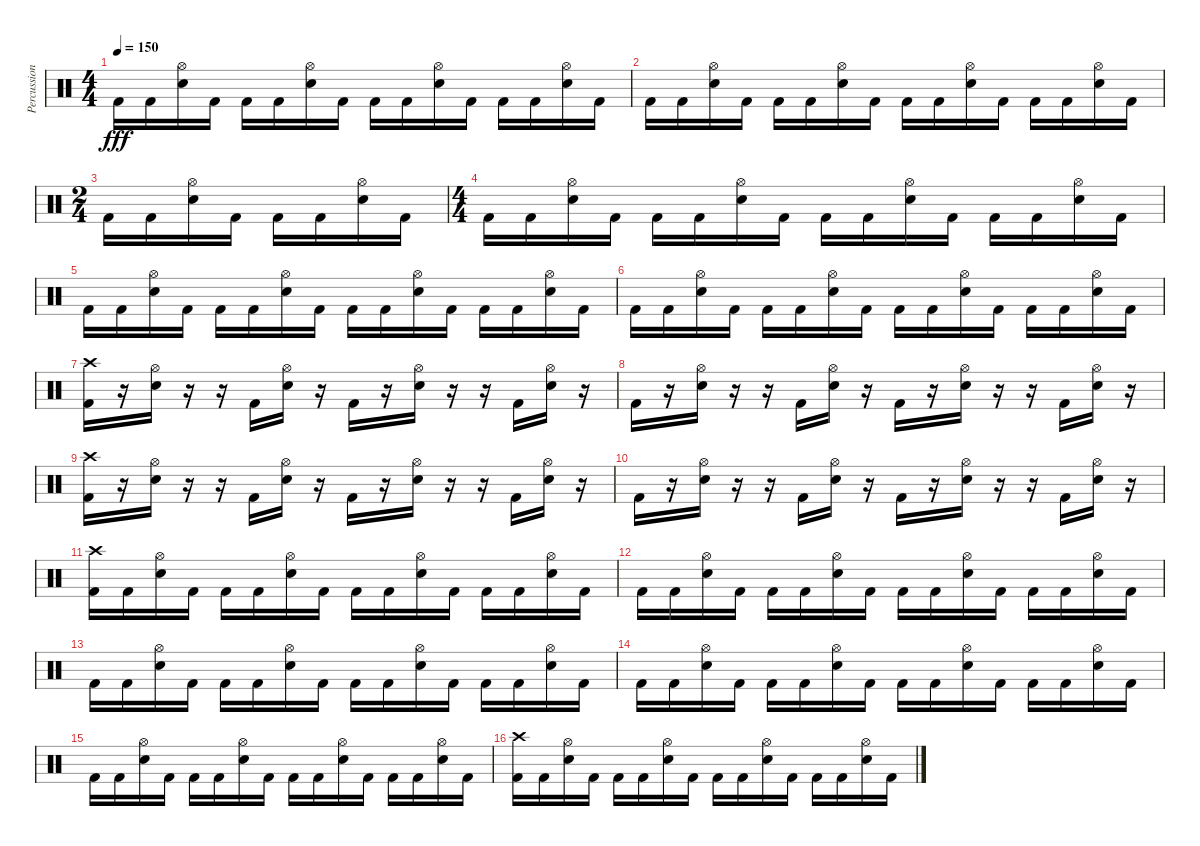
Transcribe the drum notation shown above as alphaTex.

\track ("Percussion" "Percussion") {instrument percussion}
\staff {score}
\articulation defaults
\ts (4 4)
\tempo 150
\clef neutral
\ks c "Kick (hit) 2".16{dy fff} "Kick (hit) 2".16
("Snare (hit) 2" "Hi-Hat (open)").16 "Kick (hit) 2".16 "Kick (hit) 2".16 "Kick (hit) 2".16 ("Snare (hit) 2" "Hi-Hat (open)").16 "Kick (hit) 2".16 "Kick (hit) 2".16 "Kick (hit) 2".16 ("Snare (hit) 2" "Hi-Hat (open)").16 "Kick (hit) 2".16 "Kick (hit) 2".16 "Kick (hit) 2".16 ("Snare (hit) 2" "Hi-Hat (open)").16 "Kick (hit) 2".16 |
"Kick (hit) 2".16 "Kick (hit) 2".16 ("Snare (hit) 2" "Hi-Hat (open)").16 "Kick (hit) 2".16 "Kick (hit) 2".16 "Kick (hit) 2".16 ("Snare (hit) 2" "Hi-Hat (open)").16 "Kick (hit) 2".16 "Kick (hit) 2".16 "Kick (hit) 2".16 ("Snare (hit) 2" "Hi-Hat (open)").16 "Kick (hit) 2".16 "Kick (hit) 2".16 "Kick (hit) 2".16 ("Snare (hit) 2" "Hi-Hat (open)").16 "Kick (hit) 2".16 |
\ts (2 4)
"Kick (hit) 2".16 "Kick (hit) 2".16 ("Snare (hit) 2" "Hi-Hat (open)").16 "Kick (hit) 2".16 "Kick (hit) 2".16 "Kick (hit) 2".16 ("Snare (hit) 2" "Hi-Hat (open)").16 "Kick (hit) 2".16 |
\ts (4 4)
"Kick (hit) 2".16 "Kick (hit) 2".16 ("Snare (hit) 2" "Hi-Hat (open)").16 "Kick (hit) 2".16 "Kick (hit) 2".16 "Kick (hit) 2".16 ("Snare (hit) 2" "Hi-Hat (open)").16 "Kick (hit) 2".16 "Kick (hit) 2".16 "Kick (hit) 2".16 ("Snare (hit) 2" "Hi-Hat (open)").16 "Kick (hit) 2".16 "Kick (hit) 2".16 "Kick (hit) 2".16 ("Snare (hit) 2" "Hi-Hat (open)").16 "Kick (hit) 2".16 |
"Kick (hit) 2".16 "Kick (hit) 2".16 ("Snare (hit) 2" "Hi-Hat (open)").16 "Kick (hit) 2".16 "Kick (hit) 2".16 "Kick (hit) 2".16 ("Snare (hit) 2" "Hi-Hat (open)").16 "Kick (hit) 2".16 "Kick (hit) 2".16 "Kick (hit) 2".16 ("Snare (hit) 2" "Hi-Hat (open)").16 "Kick (hit) 2".16 "Kick (hit) 2".16 "Kick (hit) 2".16 ("Snare (hit) 2" "Hi-Hat (open)").16 "Kick (hit) 2".16 |
"Kick (hit) 2".16 "Kick (hit) 2".16 ("Snare (hit) 2" "Hi-Hat (open)").16 "Kick (hit) 2".16 "Kick (hit) 2".16 "Kick (hit) 2".16 ("Snare (hit) 2" "Hi-Hat (open)").16 "Kick (hit) 2".16 "Kick (hit) 2".16 "Kick (hit) 2".16 ("Snare (hit) 2" "Hi-Hat (open)").16 "Kick (hit) 2".16 "Kick (hit) 2".16 "Kick (hit) 2".16 ("Snare (hit) 2" "Hi-Hat (open)").16 "Kick (hit) 2".16 |
("Kick (hit) 2" "Crash high (hit)").16 r.16 ("Snare (hit) 2" "Hi-Hat (open)").16 r.16 r.16 "Kick (hit) 2".16 ("Snare (hit) 2" "Hi-Hat (open)").16 r.16 "Kick (hit) 2".16 r.16 ("Snare (hit) 2" "Hi-Hat (open)").16 r.16 r.16 "Kick (hit) 2".16 ("Snare (hit) 2" "Hi-Hat (open)").16 r.16 |
"Kick (hit) 2".16 r.16 ("Snare (hit) 2" "Hi-Hat (open)").16 r.16 r.16 "Kick (hit) 2".16 ("Snare (hit) 2" "Hi-Hat (open)").16 r.16 "Kick (hit) 2".16 r.16 ("Snare (hit) 2" "Hi-Hat (open)").16 r.16 r.16 "Kick (hit) 2".16 ("Snare (hit) 2" "Hi-Hat (open)").16 r.16 |
("Kick (hit) 2" "Crash high (hit)").16 r.16 ("Snare (hit) 2" "Hi-Hat (open)").16 r.16 r.16 "Kick (hit) 2".16 ("Snare (hit) 2" "Hi-Hat (open)").16 r.16 "Kick (hit) 2".16 r.16 ("Snare (hit) 2" "Hi-Hat (open)").16 r.16 r.16 "Kick (hit) 2".16 ("Snare (hit) 2" "Hi-Hat (open)").16 r.16 |
"Kick (hit) 2".16 r.16 ("Snare (hit) 2" "Hi-Hat (open)").16 r.16 r.16 "Kick (hit) 2".16 ("Snare (hit) 2" "Hi-Hat (open)").16 r.16 "Kick (hit) 2".16 r.16 ("Snare (hit) 2" "Hi-Hat (open)").16 r.16 r.16 "Kick (hit) 2".16 ("Snare (hit) 2" "Hi-Hat (open)").16 r.16 |
("Kick (hit) 2" "Crash high (hit)").16 "Kick (hit) 2".16 ("Snare (hit) 2" "Hi-Hat (open)").16 "Kick (hit) 2".16 "Kick (hit) 2".16 "Kick (hit) 2".16 ("Snare (hit) 2" "Hi-Hat (open)").16 "Kick (hit) 2".16 "Kick (hit) 2".16 "Kick (hit) 2".16 ("Snare (hit) 2" "Hi-Hat (open)").16 "Kick (hit) 2".16 "Kick (hit) 2".16 "Kick (hit) 2".16 ("Snare (hit) 2" "Hi-Hat (open)").16 "Kick (hit) 2".16 |
"Kick (hit) 2".16 "Kick (hit) 2".16 ("Snare (hit) 2" "Hi-Hat (open)").16 "Kick (hit) 2".16 "Kick (hit) 2".16 "Kick (hit) 2".16 ("Snare (hit) 2" "Hi-Hat (open)").16 "Kick (hit) 2".16 "Kick (hit) 2".16 "Kick (hit) 2".16 ("Snare (hit) 2" "Hi-Hat (open)").16 "Kick (hit) 2".16 "Kick (hit) 2".16 "Kick (hit) 2".16 ("Snare (hit) 2" "Hi-Hat (open)").16 "Kick (hit) 2".16 |
"Kick (hit) 2".16 "Kick (hit) 2".16 ("Snare (hit) 2" "Hi-Hat (open)").16 "Kick (hit) 2".16 "Kick (hit) 2".16 "Kick (hit) 2".16 ("Snare (hit) 2" "Hi-Hat (open)").16 "Kick (hit) 2".16 "Kick (hit) 2".16 "Kick (hit) 2".16 ("Snare (hit) 2" "Hi-Hat (open)").16 "Kick (hit) 2".16 "Kick (hit) 2".16 "Kick (hit) 2".16 ("Snare (hit) 2" "Hi-Hat (open)").16 "Kick (hit) 2".16 |
"Kick (hit) 2".16 "Kick (hit) 2".16 ("Snare (hit) 2" "Hi-Hat (open)").16 "Kick (hit) 2".16 "Kick (hit) 2".16 "Kick (hit) 2".16 ("Snare (hit) 2" "Hi-Hat (open)").16 "Kick (hit) 2".16 "Kick (hit) 2".16 "Kick (hit) 2".16 ("Snare (hit) 2" "Hi-Hat (open)").16 "Kick (hit) 2".16 "Kick (hit) 2".16 "Kick (hit) 2".16 ("Snare (hit) 2" "Hi-Hat (open)").16 "Kick (hit) 2".16 |
"Kick (hit) 2".16 "Kick (hit) 2".16 ("Snare (hit) 2" "Hi-Hat (open)").16 "Kick (hit) 2".16 "Kick (hit) 2".16 "Kick (hit) 2".16 ("Snare (hit) 2" "Hi-Hat (open)").16 "Kick (hit) 2".16 "Kick (hit) 2".16 "Kick (hit) 2".16 ("Snare (hit) 2" "Hi-Hat (open)").16 "Kick (hit) 2".16 "Kick (hit) 2".16 "Kick (hit) 2".16 ("Snare (hit) 2" "Hi-Hat (open)").16 "Kick (hit) 2".16 |
("Kick (hit) 2" "Crash high (hit)").16 "Kick (hit) 2".16 ("Snare (hit) 2" "Hi-Hat (open)").16 "Kick (hit) 2".16 "Kick (hit) 2".16 "Kick (hit) 2".16 ("Snare (hit) 2" "Hi-Hat (open)").16 "Kick (hit) 2".16 "Kick (hit) 2".16 "Kick (hit) 2".16 ("Snare (hit) 2" "Hi-Hat (open)").16 "Kick (hit) 2".16 "Kick (hit) 2".16 "Kick (hit) 2".16 ("Snare (hit) 2" "Hi-Hat (open)").16 "Kick (hit) 2".16
